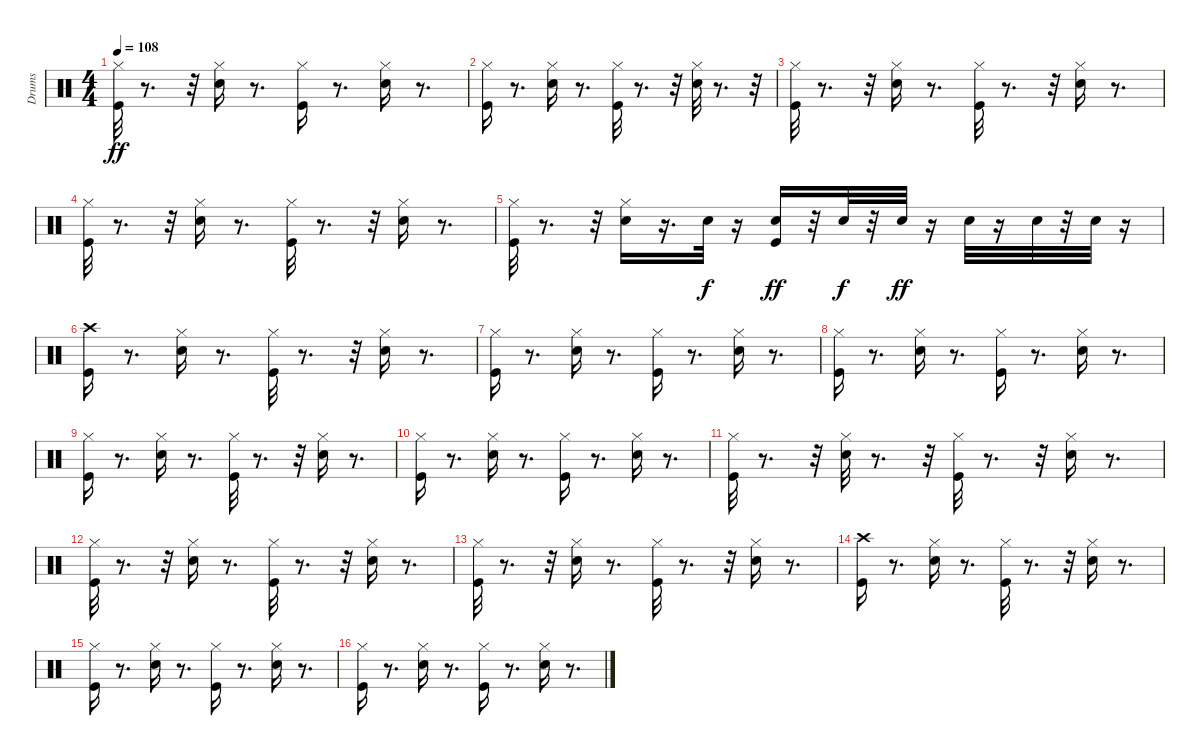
\track ("Drums" "Drums") {instrument percussion}
\staff {score}
\articulation defaults
\ts (4 4)
\tempo 108
\clef neutral
\ks c
("Kick (hit)" "Hi-Hat (closed)").32{dy ff} r.8{d} r.32 ("Electric Snare (hit)" "Hi-Hat (closed)").16 r.8{d} ("Kick (hit)" "Hi-Hat (closed)").16 r.8{d} ("Electric Snare (hit)" "Hi-Hat (closed)").16 r.8{d} |
("Kick (hit)" "Hi-Hat (closed)").16 r.8{d} ("Electric Snare (hit)" "Hi-Hat (closed)").16 r.8{d} ("Kick (hit)" "Hi-Hat (closed)").32 r.8{d} r.32 ("Electric Snare (hit)" "Hi-Hat (closed)").32 r.8{d} r.32 |
("Hi-Hat (closed)" "Kick (hit)").32 r.8{d} r.32 ("Electric Snare (hit)" "Hi-Hat (closed)").16 r.8{d} ("Kick (hit)" "Hi-Hat (closed)").32 r.8{d} r.32 ("Electric Snare (hit)" "Hi-Hat (closed)").16 r.8{d} |
("Kick (hit)" "Hi-Hat (closed)").32 r.8{d} r.32 ("Electric Snare (hit)" "Hi-Hat (closed)").16 r.8{d} ("Kick (hit)" "Hi-Hat (closed)").32 r.8{d} r.32 ("Electric Snare (hit)" "Hi-Hat (closed)").16 r.8{d} |
("Kick (hit)" "Hi-Hat (closed)").32 r.8{d} r.32 ("Electric Snare (hit)" "Hi-Hat (closed)").16 r.16{d} "Electric Snare (hit)".32{dy f} r.16 ("Kick (hit)" "Electric Snare (hit)").16{dy ff} r.32 "Electric Snare (hit)".32{dy f} r.32 "Electric Snare (hit)".32{dy ff} r.16 "Electric Snare (hit)".32 r.16 "Electric Snare (hit)".32 r.32 "Electric Snare (hit)".32 r.16 |
("Crash high (hit)" "Kick (hit)").16 r.8{d} ("Hi-Hat (closed)" "Electric Snare (hit)").16 r.8{d} ("Hi-Hat (closed)" "Kick (hit)").32 r.8{d} r.32 ("Hi-Hat (closed)" "Electric Snare (hit)").16 r.8{d} |
("Hi-Hat (closed)" "Kick (hit)").16 r.8{d} ("Electric Snare (hit)" "Hi-Hat (closed)").16 r.8{d} ("Hi-Hat (closed)" "Kick (hit)").16 r.8{d} ("Hi-Hat (closed)" "Electric Snare (hit)").16 r.8{d} |
("Kick (hit)" "Hi-Hat (closed)").16 r.8{d} ("Hi-Hat (closed)" "Electric Snare (hit)").16 r.8{d} ("Hi-Hat (closed)" "Kick (hit)").16 r.8{d} ("Hi-Hat (closed)" "Electric Snare (hit)").16 r.8{d} |
("Hi-Hat (closed)" "Kick (hit)").16 r.8{d} ("Hi-Hat (closed)" "Electric Snare (hit)").16 r.8{d} ("Kick (hit)" "Hi-Hat (closed)").32 r.8{d} r.32 ("Electric Snare (hit)" "Hi-Hat (closed)").16 r.8{d} |
("Kick (hit)" "Hi-Hat (closed)").16 r.8{d} ("Electric Snare (hit)" "Hi-Hat (closed)").16 r.8{d} ("Kick (hit)" "Hi-Hat (closed)").16 r.8{d} ("Electric Snare (hit)" "Hi-Hat (closed)").16 r.8{d} |
("Kick (hit)" "Hi-Hat (closed)").32 r.8{d} r.32 ("Electric Snare (hit)" "Hi-Hat (closed)").32 r.8{d} r.32 ("Kick (hit)" "Hi-Hat (closed)").32 r.8{d} r.32 ("Hi-Hat (closed)" "Electric Snare (hit)").16 r.8{d} |
("Kick (hit)" "Hi-Hat (closed)").32 r.8{d} r.32 ("Electric Snare (hit)" "Hi-Hat (closed)").16 r.8{d} ("Kick (hit)" "Hi-Hat (closed)").32 r.8{d} r.32 ("Electric Snare (hit)" "Hi-Hat (closed)").16 r.8{d} |
("Kick (hit)" "Hi-Hat (closed)").32 r.8{d} r.32 ("Electric Snare (hit)" "Hi-Hat (closed)").16 r.8{d} ("Kick (hit)" "Hi-Hat (closed)").32 r.8{d} r.32 ("Electric Snare (hit)" "Hi-Hat (closed)").16 r.8{d} |
("Crash high (hit)" "Kick (hit)").16 r.8{d} ("Hi-Hat (closed)" "Electric Snare (hit)").16 r.8{d} ("Hi-Hat (closed)" "Kick (hit)").32 r.8{d} r.32 ("Hi-Hat (closed)" "Electric Snare (hit)").16 r.8{d} |
("Hi-Hat (closed)" "Kick (hit)").16 r.8{d} ("Electric Snare (hit)" "Hi-Hat (closed)").16 r.8{d} ("Hi-Hat (closed)" "Kick (hit)").16 r.8{d} ("Hi-Hat (closed)" "Electric Snare (hit)").16 r.8{d} |
("Kick (hit)" "Hi-Hat (closed)").16 r.8{d} ("Hi-Hat (closed)" "Electric Snare (hit)").16 r.8{d} ("Hi-Hat (closed)" "Kick (hit)").16 r.8{d} ("Hi-Hat (closed)" "Electric Snare (hit)").16 r.8{d}
